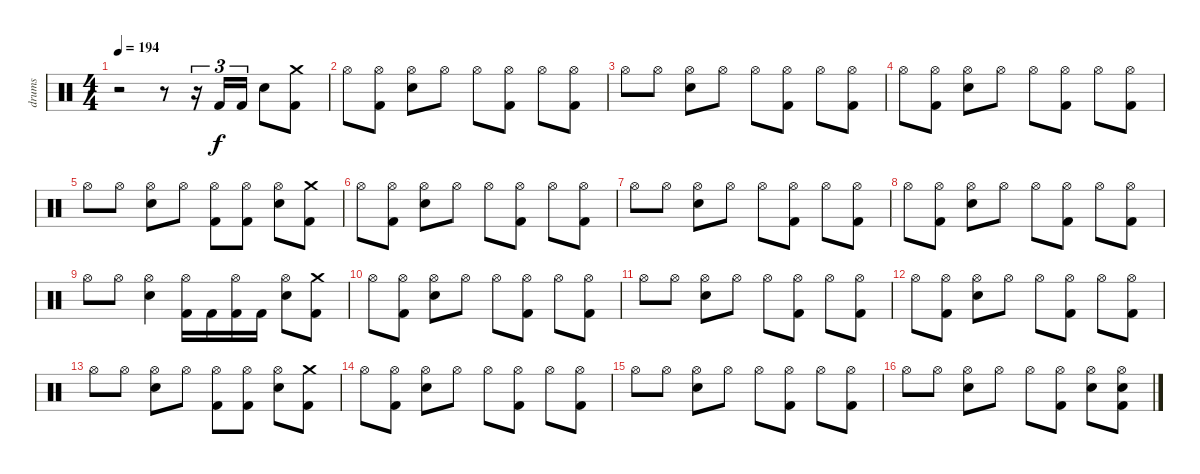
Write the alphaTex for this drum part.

\track ("drums" "drums") {instrument percussion}
\staff {score}
\articulation defaults
\ts (4 4)
\tempo 194
\clef neutral
\ks c
r.2{dy f} r.8 r.16{tu (3 2)} "Kick (hit) 2".16{tu (3 2)} "Kick (hit) 2".16{tu (3 2)} "Electric Snare (hit)".8 ("Crash medium (hit)" "Kick (hit) 2").8 |
"Hi-Hat (open)".8 ("Hi-Hat (open)" "Kick (hit) 2").8 ("Hi-Hat (open)" "Electric Snare (hit)").8 "Hi-Hat (open)".8 "Hi-Hat (open)".8 ("Hi-Hat (open)" "Kick (hit) 2").8 "Hi-Hat (open)".8 ("Hi-Hat (open)" "Kick (hit) 2").8 |
"Hi-Hat (open)".8 "Hi-Hat (open)".8 ("Hi-Hat (open)" "Electric Snare (hit)").8 "Hi-Hat (open)".8 "Hi-Hat (open)".8 ("Hi-Hat (open)" "Kick (hit) 2").8 "Hi-Hat (open)".8 ("Hi-Hat (open)" "Kick (hit) 2").8 |
"Hi-Hat (open)".8 ("Hi-Hat (open)" "Kick (hit) 2").8 ("Hi-Hat (open)" "Electric Snare (hit)").8 "Hi-Hat (open)".8 "Hi-Hat (open)".8 ("Hi-Hat (open)" "Kick (hit) 2").8 "Hi-Hat (open)".8 ("Hi-Hat (open)" "Kick (hit) 2").8 |
"Hi-Hat (open)".8 "Hi-Hat (open)".8 ("Hi-Hat (open)" "Electric Snare (hit)").8 "Hi-Hat (open)".8 ("Hi-Hat (open)" "Kick (hit) 2").8 ("Hi-Hat (open)" "Kick (hit) 2").8 ("Hi-Hat (open)" "Electric Snare (hit)").8 ("Crash medium (hit)" "Kick (hit) 2").8 |
"Hi-Hat (open)".8 ("Hi-Hat (open)" "Kick (hit) 2").8 ("Hi-Hat (open)" "Electric Snare (hit)").8 "Hi-Hat (open)".8 "Hi-Hat (open)".8 ("Hi-Hat (open)" "Kick (hit) 2").8 "Hi-Hat (open)".8 ("Hi-Hat (open)" "Kick (hit) 2").8 |
"Hi-Hat (open)".8 "Hi-Hat (open)".8 ("Hi-Hat (open)" "Electric Snare (hit)").8 "Hi-Hat (open)".8 "Hi-Hat (open)".8 ("Hi-Hat (open)" "Kick (hit) 2").8 "Hi-Hat (open)".8 ("Hi-Hat (open)" "Kick (hit) 2").8 |
"Hi-Hat (open)".8 ("Hi-Hat (open)" "Kick (hit) 2").8 ("Hi-Hat (open)" "Electric Snare (hit)").8 "Hi-Hat (open)".8 "Hi-Hat (open)".8 ("Hi-Hat (open)" "Kick (hit) 2").8 "Hi-Hat (open)".8 ("Hi-Hat (open)" "Kick (hit) 2").8 |
"Hi-Hat (open)".8 "Hi-Hat (open)".8 ("Hi-Hat (open)" "Electric Snare (hit)").4 ("Hi-Hat (open)" "Kick (hit) 2").16 "Kick (hit) 2".16 ("Hi-Hat (open)" "Kick (hit) 2").16 "Kick (hit) 2".16 ("Hi-Hat (open)" "Electric Snare (hit)").8 ("Crash medium (hit)" "Kick (hit) 2").8 |
"Hi-Hat (open)".8 ("Hi-Hat (open)" "Kick (hit) 2").8 ("Hi-Hat (open)" "Electric Snare (hit)").8 "Hi-Hat (open)".8 "Hi-Hat (open)".8 ("Hi-Hat (open)" "Kick (hit) 2").8 "Hi-Hat (open)".8 ("Hi-Hat (open)" "Kick (hit) 2").8 |
"Hi-Hat (open)".8 "Hi-Hat (open)".8 ("Hi-Hat (open)" "Electric Snare (hit)").8 "Hi-Hat (open)".8 "Hi-Hat (open)".8 ("Hi-Hat (open)" "Kick (hit) 2").8 "Hi-Hat (open)".8 ("Hi-Hat (open)" "Kick (hit) 2").8 |
"Hi-Hat (open)".8 ("Hi-Hat (open)" "Kick (hit) 2").8 ("Hi-Hat (open)" "Electric Snare (hit)").8 "Hi-Hat (open)".8 "Hi-Hat (open)".8 ("Hi-Hat (open)" "Kick (hit) 2").8 "Hi-Hat (open)".8 ("Hi-Hat (open)" "Kick (hit) 2").8 |
"Hi-Hat (open)".8 "Hi-Hat (open)".8 ("Hi-Hat (open)" "Electric Snare (hit)").8 "Hi-Hat (open)".8 ("Hi-Hat (open)" "Kick (hit) 2").8 ("Hi-Hat (open)" "Kick (hit) 2").8 ("Hi-Hat (open)" "Electric Snare (hit)").8 ("Crash medium (hit)" "Kick (hit) 2").8 |
"Hi-Hat (open)".8 ("Hi-Hat (open)" "Kick (hit) 2").8 ("Hi-Hat (open)" "Electric Snare (hit)").8 "Hi-Hat (open)".8 "Hi-Hat (open)".8 ("Hi-Hat (open)" "Kick (hit) 2").8 "Hi-Hat (open)".8 ("Hi-Hat (open)" "Kick (hit) 2").8 |
"Hi-Hat (open)".8 "Hi-Hat (open)".8 ("Hi-Hat (open)" "Electric Snare (hit)").8 "Hi-Hat (open)".8 "Hi-Hat (open)".8 ("Hi-Hat (open)" "Kick (hit) 2").8 "Hi-Hat (open)".8 ("Hi-Hat (open)" "Kick (hit) 2").8 |
"Hi-Hat (open)".8 "Hi-Hat (open)".8 ("Hi-Hat (open)" "Electric Snare (hit)").8 "Hi-Hat (open)".8 "Hi-Hat (open)".8 ("Hi-Hat (open)" "Kick (hit) 2").8 ("Hi-Hat (open)" "Electric Snare (hit)").8 ("Hi-Hat (open)" "Electric Snare (hit)" "Kick (hit) 2").8
